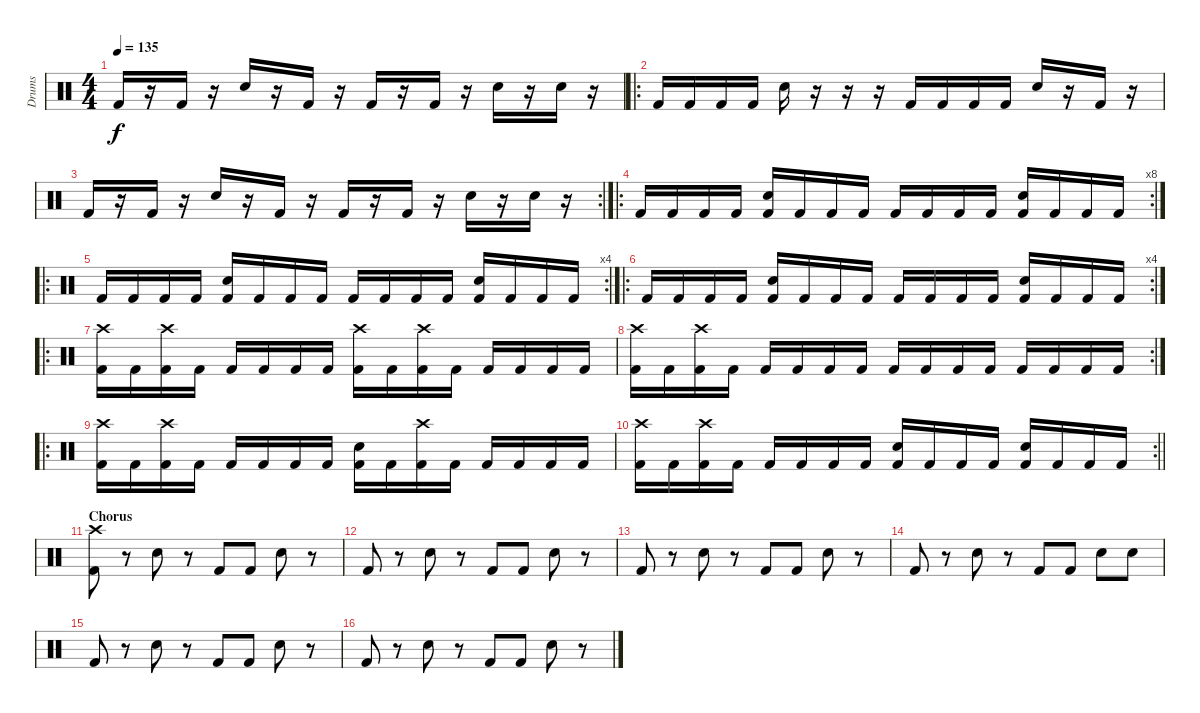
\track ("Drums" "Drums") {instrument percussion}
\staff {score}
\articulation defaults
\ts (4 4)
\tempo 135
\clef neutral
\ks c "Kick (hit) 2".16{dy f}
r.16 "Kick (hit) 2".16 r.16 "Snare (hit) 2".16 r.16 "Kick (hit) 2".16 r.16 "Kick (hit) 2".16 r.16 "Kick (hit) 2".16 r.16 "Snare (hit) 2".16 r.16 "Snare (hit) 2".16 r.16 |
\ro "Kick (hit) 2".16 "Kick (hit) 2".16 "Kick (hit) 2".16 "Kick (hit) 2".16 "Snare (hit) 2".16
r.16 r.16 r.16 "Kick (hit) 2".16 "Kick (hit) 2".16 "Kick (hit) 2".16 "Kick (hit) 2".16 "Snare (hit) 2".16 r.16 "Kick (hit) 2".16 r.16 |
\rc 2 "Kick (hit) 2".16
r.16 "Kick (hit) 2".16 r.16 "Snare (hit) 2".16 r.16 "Kick (hit) 2".16 r.16 "Kick (hit) 2".16 r.16 "Kick (hit) 2".16 r.16 "Snare (hit) 2".16 r.16 "Snare (hit) 2".16 r.16 |
\ro
\rc 8 "Kick (hit) 2".16 "Kick (hit) 2".16 "Kick (hit) 2".16 "Kick (hit) 2".16
("Snare (hit) 2" "Kick (hit) 2").16 "Kick (hit) 2".16 "Kick (hit) 2".16 "Kick (hit) 2".16 "Kick (hit) 2".16 "Kick (hit) 2".16 "Kick (hit) 2".16 "Kick (hit) 2".16 ("Snare (hit) 2" "Kick (hit) 2").16 "Kick (hit) 2".16 "Kick (hit) 2".16 "Kick (hit) 2".16 |
\ro
\rc 4 "Kick (hit) 2".16 "Kick (hit) 2".16 "Kick (hit) 2".16 "Kick (hit) 2".16
("Snare (hit) 2" "Kick (hit) 2").16 "Kick (hit) 2".16 "Kick (hit) 2".16 "Kick (hit) 2".16 "Kick (hit) 2".16 "Kick (hit) 2".16 "Kick (hit) 2".16 "Kick (hit) 2".16 ("Snare (hit) 2" "Kick (hit) 2").16 "Kick (hit) 2".16 "Kick (hit) 2".16 "Kick (hit) 2".16 |
\ro
\rc 4 "Kick (hit) 2".16 "Kick (hit) 2".16 "Kick (hit) 2".16 "Kick (hit) 2".16
("Snare (hit) 2" "Kick (hit) 2").16 "Kick (hit) 2".16 "Kick (hit) 2".16 "Kick (hit) 2".16 "Kick (hit) 2".16 "Kick (hit) 2".16 "Kick (hit) 2".16 "Kick (hit) 2".16 ("Snare (hit) 2" "Kick (hit) 2").16 "Kick (hit) 2".16 "Kick (hit) 2".16 "Kick (hit) 2".16 |
\ro
("Crash high (hit)" "Kick (hit) 2").16 "Kick (hit) 2".16 ("Crash high (hit)" "Kick (hit) 2").16 "Kick (hit) 2".16 "Kick (hit) 2".16 "Kick (hit) 2".16 "Kick (hit) 2".16 "Kick (hit) 2".16 ("Crash high (hit)" "Kick (hit) 2").16 "Kick (hit) 2".16 ("Crash high (hit)" "Kick (hit) 2").16 "Kick (hit) 2".16 "Kick (hit) 2".16 "Kick (hit) 2".16 "Kick (hit) 2".16 "Kick (hit) 2".16 |
\rc 2
("Crash high (hit)" "Kick (hit) 2").16 "Kick (hit) 2".16 ("Crash high (hit)" "Kick (hit) 2").16 "Kick (hit) 2".16 "Kick (hit) 2".16 "Kick (hit) 2".16 "Kick (hit) 2".16 "Kick (hit) 2".16 "Kick (hit) 2".16 "Kick (hit) 2".16 "Kick (hit) 2".16 "Kick (hit) 2".16 "Kick (hit) 2".16 "Kick (hit) 2".16 "Kick (hit) 2".16 "Kick (hit) 2".16 |
\ro
("Crash high (hit)" "Kick (hit) 2").16 "Kick (hit) 2".16 ("Crash high (hit)" "Kick (hit) 2").16 "Kick (hit) 2".16 "Kick (hit) 2".16 "Kick (hit) 2".16 "Kick (hit) 2".16 "Kick (hit) 2".16 ("Snare (hit) 2" "Kick (hit) 2").16 "Kick (hit) 2".16 ("Crash high (hit)" "Kick (hit) 2").16 "Kick (hit) 2".16 "Kick (hit) 2".16 "Kick (hit) 2".16 "Kick (hit) 2".16 "Kick (hit) 2".16 |
\rc 2
\barLineRight lightlight
("Crash high (hit)" "Kick (hit) 2").16 "Kick (hit) 2".16 ("Crash high (hit)" "Kick (hit) 2").16 "Kick (hit) 2".16 "Kick (hit) 2".16 "Kick (hit) 2".16 "Kick (hit) 2".16 "Kick (hit) 2".16 ("Snare (hit) 2" "Kick (hit) 2").16 "Kick (hit) 2".16 "Kick (hit) 2".16 "Kick (hit) 2".16 ("Snare (hit) 2" "Kick (hit) 2").16 "Kick (hit) 2".16 "Kick (hit) 2".16 "Kick (hit) 2".16 |
\section ("" "Chorus")
("Crash high (hit)" "Kick (hit) 2").8 r.8 "Snare (hit) 2".8 r.8 "Kick (hit) 2".8 "Kick (hit) 2".8 "Snare (hit) 2".8 r.8 |
"Kick (hit) 2".8 r.8 "Snare (hit) 2".8 r.8 "Kick (hit) 2".8 "Kick (hit) 2".8 "Snare (hit) 2".8 r.8 |
"Kick (hit) 2".8 r.8 "Snare (hit) 2".8 r.8 "Kick (hit) 2".8 "Kick (hit) 2".8 "Snare (hit) 2".8 r.8 |
"Kick (hit) 2".8 r.8 "Snare (hit) 2".8 r.8 "Kick (hit) 2".8 "Kick (hit) 2".8 "Snare (hit) 2".8 "Snare (hit) 2".8 |
"Kick (hit) 2".8 r.8 "Snare (hit) 2".8 r.8 "Kick (hit) 2".8 "Kick (hit) 2".8 "Snare (hit) 2".8 r.8 |
"Kick (hit) 2".8 r.8 "Snare (hit) 2".8 r.8 "Kick (hit) 2".8 "Kick (hit) 2".8 "Snare (hit) 2".8 r.8
